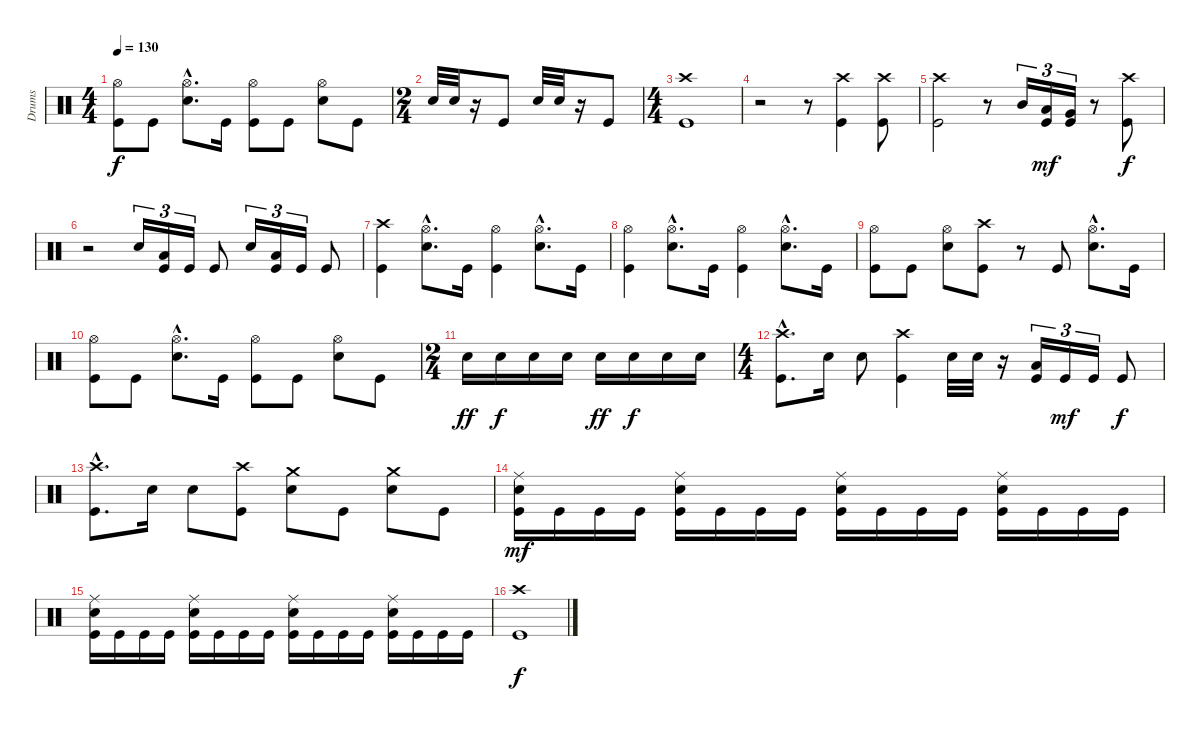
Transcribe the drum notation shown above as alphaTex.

\track ("Drums" "Drums") {instrument percussion}
\staff {score}
\articulation defaults
\ts (4 4)
\tempo 130
\clef neutral
\ks c
("Hi-Hat (open)" "Kick (hit)").8{dy f} "Kick (hit)".8 ("Hi-Hat (open)"{hac} "Snare (hit) 2"{hac}).8{d} "Kick (hit)".16 ("Hi-Hat (open)" "Kick (hit)").8 "Kick (hit)".8 ("Hi-Hat (open)" "Snare (hit) 2").8 "Kick (hit)".8 |
\ts (2 4)
"Snare (hit) 2".32 "Snare (hit) 2".32 r.16 "Kick (hit)".8 "Snare (hit) 2".32 "Snare (hit) 2".32 r.16 "Kick (hit)".8 |
\ts (4 4)
("Crash high (hit)" "Kick (hit)").1 |
r.2 r.8 ("Crash high (hit)" "Kick (hit)").4 ("Crash high (hit)" "Kick (hit)").8 |
("Crash high (hit)" "Kick (hit)").2 r.8 "Mid Tom (hit)".16{tu (3 2)} ("Low Tom (hit)" "Kick (hit)").16{tu (3 2) dy mf} ("Very Low Tom (hit)" "Kick (hit)").16{tu (3 2)} r.8 ("Crash high (hit)" "Kick (hit)").8{dy f} |
r.2 "Snare (hit) 2".16{tu (3 2)} ("Low Tom (hit)" "Kick (hit)").16{tu (3 2)} "Kick (hit)".16{tu (3 2)} "Kick (hit)".8 "Snare (hit) 2".16{tu (3 2)} ("Low Tom (hit)" "Kick (hit)").16{tu (3 2)} "Kick (hit)".16{tu (3 2)} "Kick (hit)".8 |
("Crash high (hit)" "Kick (hit)").4 ("Hi-Hat (open)"{hac} "Snare (hit) 2"{hac}).8{d} "Kick (hit)".16 ("Hi-Hat (open)" "Kick (hit)").4 ("Hi-Hat (open)"{hac} "Snare (hit) 2"{hac}).8{d} "Kick (hit)".16 |
("Hi-Hat (open)" "Kick (hit)").4 ("Hi-Hat (open)"{hac} "Snare (hit) 2"{hac}).8{d} "Kick (hit)".16 ("Hi-Hat (open)" "Kick (hit)").4 ("Hi-Hat (open)"{hac} "Snare (hit) 2"{hac}).8{d} "Kick (hit)".16 |
("Hi-Hat (open)" "Kick (hit)").8 "Kick (hit)".8 ("Hi-Hat (open)" "Snare (hit) 2").8 ("Crash high (hit)" "Kick (hit)").8 r.8 "Kick (hit)".8 ("Hi-Hat (open)"{hac} "Snare (hit) 2"{hac}).8{d} "Kick (hit)".16 |
("Hi-Hat (open)" "Kick (hit)").8 "Kick (hit)".8 ("Hi-Hat (open)"{hac} "Snare (hit) 2"{hac}).8{d} "Kick (hit)".16 ("Hi-Hat (open)" "Kick (hit)").8 "Kick (hit)".8 ("Hi-Hat (open)" "Snare (hit) 2").8 "Kick (hit)".8 |
\ts (2 4)
"Snare (hit) 2".16{dy ff} "Snare (hit) 2".16{dy f} "Snare (hit) 2".16 "Snare (hit) 2".16 "Snare (hit) 2".16{dy ff} "Snare (hit) 2".16{dy f} "Snare (hit) 2".16 "Snare (hit) 2".16 |
\ts (4 4)
("Crash high (hit)"{hac} "Kick (hit)"{hac}).8{d} "Snare (hit) 2".16 "Snare (hit) 2".8 ("Crash high (hit)" "Kick (hit)").4 "Snare (hit) 2".32 "Snare (hit) 2".32 r.16 ("Low Tom (hit)" "Kick (hit)").16{tu (3 2)} "Kick (hit)".16{tu (3 2) dy mf} "Kick (hit)".16{tu (3 2)} "Kick (hit)".8{dy f} |
("Crash high (hit)"{hac} "Kick (hit)"{hac}).8{d} "Snare (hit) 2".16 "Snare (hit) 2".8 ("Crash high (hit)" "Kick (hit)").8 ("Crash medium (hit)" "Snare (hit) 2").8 "Kick (hit)".8 ("Crash medium (hit)" "Snare (hit) 2").8 "Kick (hit)".8 |
("Ride (middle)" "Snare (hit) 2" "Kick (hit)").16{dy mf} "Kick (hit)".16 "Kick (hit)".16 "Kick (hit)".16 ("Ride (middle)" "Snare (hit) 2" "Kick (hit)").16 "Kick (hit)".16 "Kick (hit)".16 "Kick (hit)".16 ("Ride (middle)" "Snare (hit) 2" "Kick (hit)").16 "Kick (hit)".16 "Kick (hit)".16 "Kick (hit)".16 ("Ride (middle)" "Snare (hit) 2" "Kick (hit)").16 "Kick (hit)".16 "Kick (hit)".16 "Kick (hit)".16 |
("Ride (middle)" "Snare (hit) 2" "Kick (hit)").16 "Kick (hit)".16 "Kick (hit)".16 "Kick (hit)".16 ("Ride (middle)" "Snare (hit) 2" "Kick (hit)").16 "Kick (hit)".16 "Kick (hit)".16 "Kick (hit)".16 ("Ride (middle)" "Snare (hit) 2" "Kick (hit)").16 "Kick (hit)".16 "Kick (hit)".16 "Kick (hit)".16 ("Ride (middle)" "Snare (hit) 2" "Kick (hit)").16 "Kick (hit)".16 "Kick (hit)".16 "Kick (hit)".16 |
("Crash high (hit)" "Kick (hit)").1{dy f}
